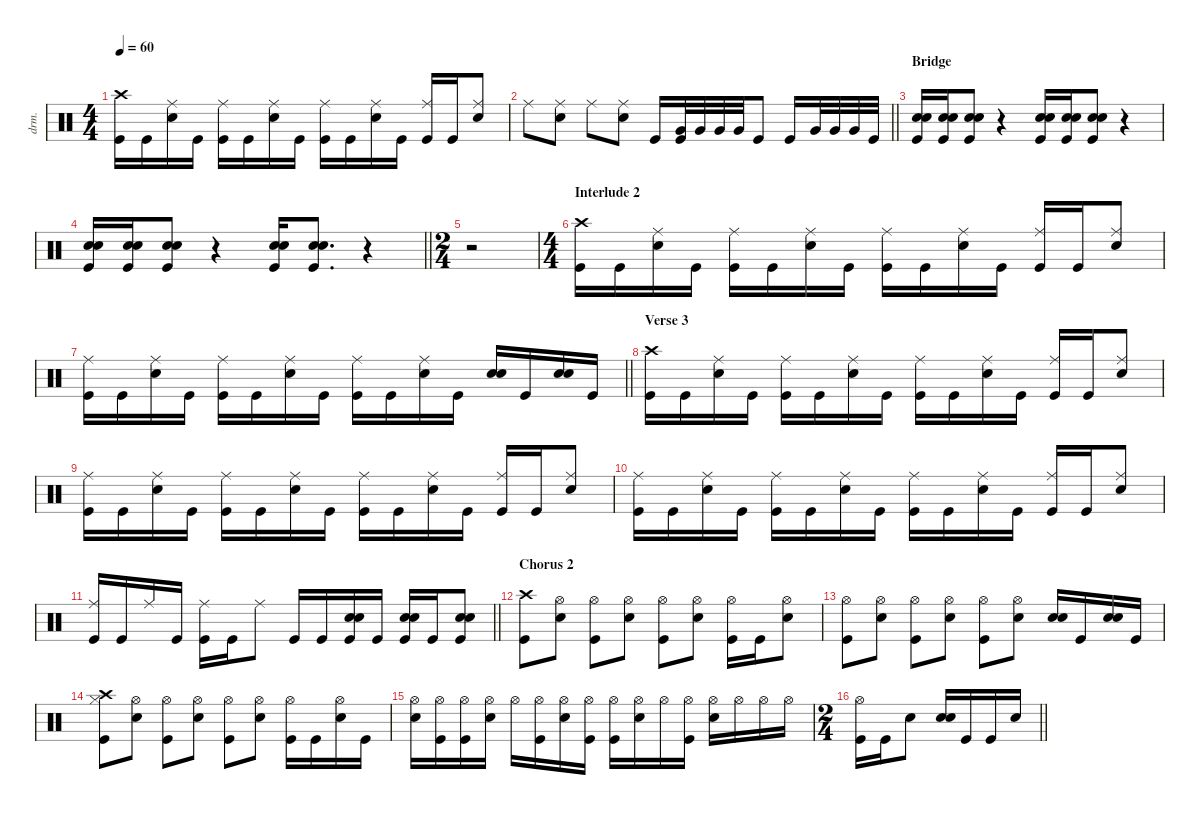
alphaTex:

\defaultSystemsLayout 4
\hideDynamics
\bracketExtendMode nobrackets
\otherSystemsTrackNameOrientation horizontal
\track ("Drums" "drm.") {defaultSystemsLayout 4 instrument percussion}
\staff {score}
\articulation defaults
\ts (4 4)
\tempo 60
\clef neutral
\ks c
("Crash high (hit)" "Kick (hit)").16{dy f beam Down} "Kick (hit)".16{beam Down} ("Ride (middle)" "Snare (hit) 2").16{beam Down} "Kick (hit)".16{beam Down} ("Ride (middle)" "Kick (hit)").16{beam Down} "Kick (hit)".16{beam Down} ("Ride (middle)" "Snare (hit) 2").16{beam Down} "Kick (hit)".16{beam Down} ("Ride (middle)" "Kick (hit)").16{beam Down} "Kick (hit)".16{beam Down} ("Ride (middle)" "Snare (hit) 2").16{beam Down} "Kick (hit)".16{beam Down} ("Ride (middle)" "Kick (hit)").16{beam Up} "Kick (hit)".16{beam Up} ("Ride (middle)" "Snare (hit) 2").8{beam Up} |
\barLineRight lightlight "Ride (middle)".8{beam Down}
("Ride (middle)" "Snare (hit) 2").8{beam Down} "Ride (middle)".8{beam Down} ("Ride (middle)" "Snare (hit) 2").8{beam Down} "Kick (hit)".16{beam Up} ("Very Low Tom (hit)" "Kick (hit)").32{beam Up} "Very Low Tom (hit)".32{beam Up} "Very Low Tom (hit)".32{beam Up} "Very Low Tom (hit)".32{beam Up} "Kick (hit)".8{beam Up} "Kick (hit)".16{beam Up} "Very Low Tom (hit)".32{beam Up} "Very Low Tom (hit)".32{beam Up} "Very Low Tom (hit)".32{beam Up} "Kick (hit)".32{beam Up} |
\section ("" "Bridge")
("Snare (hit) 2" "Snare (hit) 2" "Kick (hit)").16{beam Up} ("Snare (hit) 2" "Snare (hit) 2" "Kick (hit)").16{beam Up} ("Snare (hit) 2" "Snare (hit) 2" "Kick (hit)").8{beam Up} r.4{beam Up} ("Snare (hit) 2" "Snare (hit) 2" "Kick (hit)").16{beam Up} ("Snare (hit) 2" "Snare (hit) 2" "Kick (hit)").16{beam Up} ("Snare (hit) 2" "Snare (hit) 2" "Kick (hit)").8{beam Up} r.4{beam Up} |
\barLineRight lightlight
("Snare (hit) 2" "Snare (hit) 2" "Kick (hit)").16{beam Up} ("Snare (hit) 2" "Snare (hit) 2" "Kick (hit)").16{beam Up} ("Snare (hit) 2" "Snare (hit) 2" "Kick (hit)").8{beam Up} r.4{beam Up} ("Snare (hit) 2" "Snare (hit) 2" "Kick (hit)").16{beam Up} ("Snare (hit) 2" "Snare (hit) 2" "Kick (hit)").8{d beam Up} r.4{beam Up} |
\ts (2 4)
\beaming (8 2 2)
r.2{beam Down} |
\ts (4 4)
\section ("" "Interlude 2")
("Crash high (hit)" "Kick (hit)").16{beam Down} "Kick (hit)".16{beam Down} ("Ride (middle)" "Snare (hit) 2").16{beam Down} "Kick (hit)".16{beam Down} ("Ride (middle)" "Kick (hit)").16{beam Down} "Kick (hit)".16{beam Down} ("Ride (middle)" "Snare (hit) 2").16{beam Down} "Kick (hit)".16{beam Down} ("Ride (middle)" "Kick (hit)").16{beam Down} "Kick (hit)".16{beam Down} ("Ride (middle)" "Snare (hit) 2").16{beam Down} "Kick (hit)".16{beam Down} ("Ride (middle)" "Kick (hit)").16{beam Up} "Kick (hit)".16{beam Up} ("Ride (middle)" "Snare (hit) 2").8{beam Up} |
\barLineRight lightlight
("Ride (middle)" "Kick (hit)").16{beam Down} "Kick (hit)".16{beam Down} ("Ride (middle)" "Snare (hit) 2").16{beam Down} "Kick (hit)".16{beam Down} ("Ride (middle)" "Kick (hit)").16{beam Down} "Kick (hit)".16{beam Down} ("Ride (middle)" "Snare (hit) 2").16{beam Down} "Kick (hit)".16{beam Down} ("Ride (middle)" "Kick (hit)").16{beam Down} "Kick (hit)".16{beam Down} ("Ride (middle)" "Snare (hit) 2").16{beam Down} "Kick (hit)".16{beam Down} ("Snare (hit) 2" "Snare (hit) 2").16{beam Up} "Kick (hit)".16{beam Up} ("Snare (hit) 2" "Snare (hit) 2").16{beam Up} "Kick (hit)".16{beam Up} |
\section ("" "Verse 3")
("Crash high (hit)" "Kick (hit)").16{beam Down} "Kick (hit)".16{beam Down} ("Ride (middle)" "Snare (hit) 2").16{beam Down} "Kick (hit)".16{beam Down} ("Ride (middle)" "Kick (hit)").16{beam Down} "Kick (hit)".16{beam Down} ("Ride (middle)" "Snare (hit) 2").16{beam Down} "Kick (hit)".16{beam Down} ("Ride (middle)" "Kick (hit)").16{beam Down} "Kick (hit)".16{beam Down} ("Ride (middle)" "Snare (hit) 2").16{beam Down} "Kick (hit)".16{beam Down} ("Ride (middle)" "Kick (hit)").16{beam Up} "Kick (hit)".16{beam Up} ("Ride (middle)" "Snare (hit) 2").8{beam Up} |
("Ride (middle)" "Kick (hit)").16{beam Down} "Kick (hit)".16{beam Down} ("Ride (middle)" "Snare (hit) 2").16{beam Down} "Kick (hit)".16{beam Down} ("Ride (middle)" "Kick (hit)").16{beam Down} "Kick (hit)".16{beam Down} ("Ride (middle)" "Snare (hit) 2").16{beam Down} "Kick (hit)".16{beam Down} ("Ride (middle)" "Kick (hit)").16{beam Down} "Kick (hit)".16{beam Down} ("Ride (middle)" "Snare (hit) 2").16{beam Down} "Kick (hit)".16{beam Down} ("Ride (middle)" "Kick (hit)").16{beam Up} "Kick (hit)".16{beam Up} ("Ride (middle)" "Snare (hit) 2").8{beam Up} |
("Ride (middle)" "Kick (hit)").16{beam Down} "Kick (hit)".16{beam Down} ("Ride (middle)" "Snare (hit) 2").16{beam Down} "Kick (hit)".16{beam Down} ("Ride (middle)" "Kick (hit)").16{beam Down} "Kick (hit)".16{beam Down} ("Ride (middle)" "Snare (hit) 2").16{beam Down} "Kick (hit)".16{beam Down} ("Ride (middle)" "Kick (hit)").16{beam Down} "Kick (hit)".16{beam Down} ("Ride (middle)" "Snare (hit) 2").16{beam Down} "Kick (hit)".16{beam Down} ("Ride (middle)" "Kick (hit)").16{beam Up} "Kick (hit)".16{beam Up} ("Ride (middle)" "Snare (hit) 2").8{beam Up} |
\barLineRight lightlight
("Ride (middle)" "Kick (hit)").16{beam Up} "Kick (hit)".16{beam Up} "Ride (middle)".16{beam Up} "Kick (hit)".16{beam Up} ("Ride (middle)" "Kick (hit)").16{beam Down} "Kick (hit)".16{beam Down} "Ride (middle)".8{beam Down} "Kick (hit)".16{beam Up} "Kick (hit)".16{beam Up} ("Snare (hit) 2" "Snare (hit) 2" "Kick (hit)").16{beam Up} "Kick (hit)".16{beam Up} ("Snare (hit) 2" "Snare (hit) 2" "Kick (hit)").16{beam Up} "Kick (hit)".16{beam Up} ("Snare (hit) 2" "Snare (hit) 2" "Kick (hit)").8{beam Up} |
\section ("" "Chorus 2")
("Crash high (hit)" "Kick (hit)").8{beam Down} ("Hi-Hat (open)" "Snare (hit) 2").8{beam Down} ("Hi-Hat (open)" "Kick (hit)").8{beam Down} ("Hi-Hat (open)" "Snare (hit) 2").8{beam Down} ("Hi-Hat (open)" "Kick (hit)").8{beam Down} ("Hi-Hat (open)" "Snare (hit) 2").8{beam Down} ("Hi-Hat (open)" "Kick (hit)").16{beam Down} "Kick (hit)".16{beam Down} ("Hi-Hat (open)" "Snare (hit) 2").8{beam Down} |
("Hi-Hat (open)" "Kick (hit)").8{beam Down} ("Hi-Hat (open)" "Snare (hit) 2").8{beam Down} ("Hi-Hat (open)" "Kick (hit)").8{beam Down} ("Hi-Hat (open)" "Snare (hit) 2").8{beam Down} ("Hi-Hat (open)" "Kick (hit)").8{beam Down} ("Hi-Hat (open)" "Snare (hit) 2").8{beam Down} ("Snare (hit) 2" "Snare (hit) 2").16{beam Up} "Kick (hit)".16{beam Up} ("Snare (hit) 2" "Snare (hit) 2").16{beam Up} "Kick (hit)".16{beam Up} |
("Crash high (hit)" "Hi-Hat (closed)" "Kick (hit)").8{beam Down} ("Hi-Hat (open)" "Snare (hit) 2").8{beam Down} ("Hi-Hat (open)" "Kick (hit)").8{beam Down} ("Hi-Hat (open)" "Snare (hit) 2").8{beam Down} ("Hi-Hat (open)" "Kick (hit)").8{beam Down} ("Hi-Hat (open)" "Snare (hit) 2").8{beam Down} ("Hi-Hat (open)" "Kick (hit)").16{beam Down} "Kick (hit)".16{beam Down} ("Hi-Hat (open)" "Snare (hit) 2").16{beam Down} "Kick (hit)".16{beam Down} |
("Hi-Hat (open)" "Snare (hit) 2").16{beam Down} ("Hi-Hat (open)" "Kick (hit)").16{beam Down} ("Hi-Hat (open)" "Kick (hit)").16{beam Down} ("Hi-Hat (open)" "Snare (hit) 2").16{beam Down} "Hi-Hat (open)".16{beam Down} ("Hi-Hat (open)" "Kick (hit)").16{beam Down} ("Hi-Hat (open)" "Snare (hit) 2").16{beam Down} ("Hi-Hat (open)" "Kick (hit)").16{beam Down} ("Hi-Hat (open)" "Kick (hit)").16{beam Down} ("Hi-Hat (open)" "Snare (hit) 2").16{beam Down} "Hi-Hat (open)".16{beam Down} ("Hi-Hat (open)" "Kick (hit)").16{beam Down} ("Hi-Hat (open)" "Snare (hit) 2").16{beam Down} "Hi-Hat (open)".16{beam Down} "Hi-Hat (open)".16{beam Down} "Hi-Hat (open)".16{beam Down} |
\ts (2 4)
\barLineRight lightlight
("Hi-Hat (open)" "Kick (hit)").16{beam Down} "Kick (hit)".16{beam Down} "Snare (hit) 2".8{beam Down} ("Snare (hit) 2" "Snare (hit) 2").16{beam Up} "Kick (hit)".16{beam Up} "Kick (hit)".16{beam Up} "Snare (hit) 2".16{beam Up}
